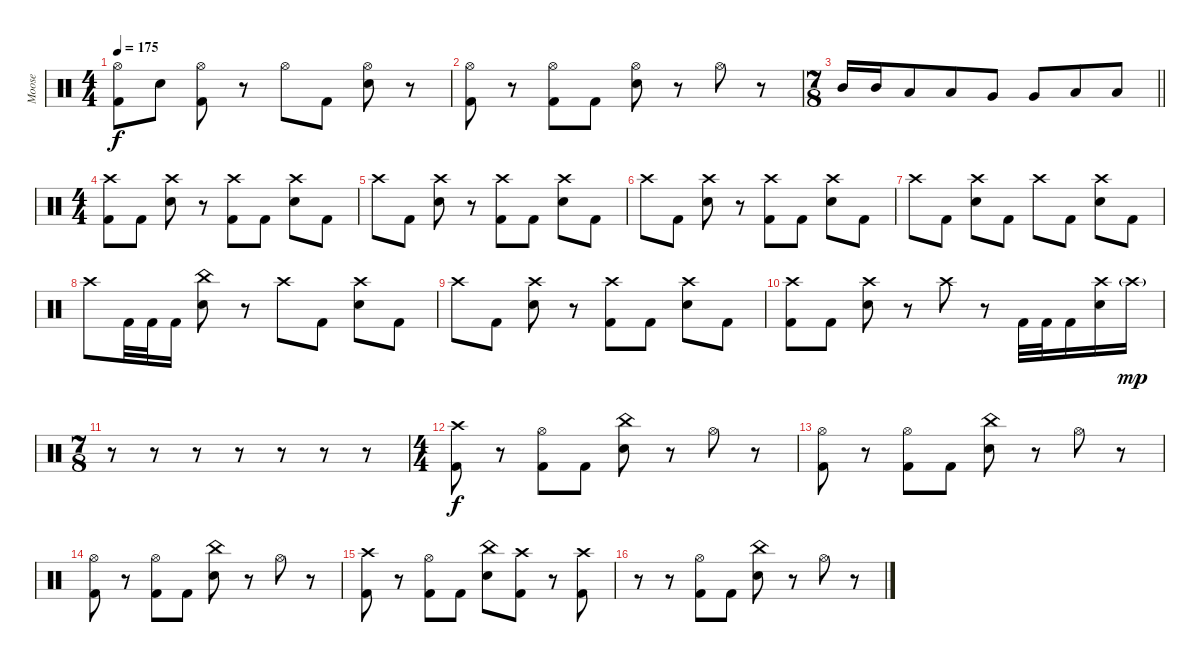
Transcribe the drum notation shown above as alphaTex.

\track ("Moose" "Moose") {instrument percussion}
\staff {score}
\articulation defaults
\ts (4 4)
\tempo 175
\clef neutral
\ks c
("Hi-Hat (open)" "Kick (hit) 2").8{dy f} "Electric Snare (hit)".8 ("Hi-Hat (open)" "Kick (hit) 2").8 r.8 "Hi-Hat (open)".8 "Kick (hit) 2".8 ("Hi-Hat (open)" "Electric Snare (hit)").8 r.8 |
("Hi-Hat (open)" "Kick (hit) 2").8 r.8 ("Hi-Hat (open)" "Kick (hit) 2").8 "Kick (hit) 2".8 ("Hi-Hat (open)" "Electric Snare (hit)").8 r.8 "Hi-Hat (open)".8 r.8 |
\ts (7 8)
\barLineRight lightlight "Mid Tom (hit)".16 "Mid Tom (hit)".16 "Low Tom (hit)".8 "Low Tom (hit)".8 "Very Low Tom (hit)".8 "Very Low Tom (hit)".8 "Low Floor Tom (hit)".8 "Low Floor Tom (hit)".8
|
\ts (4 4)
("Crash high (hit)" "Kick (hit) 2").8 "Kick (hit) 2".8 ("Crash high (hit)" "Electric Snare (hit)").8 r.8 ("Crash high (hit)" "Kick (hit) 2").8 "Kick (hit) 2".8 ("Crash high (hit)" "Electric Snare (hit)").8 "Kick (hit) 2".8 |
"Crash high (hit)".8 "Kick (hit) 2".8 ("Crash high (hit)" "Electric Snare (hit)").8 r.8 ("Crash high (hit)" "Kick (hit) 2").8 "Kick (hit) 2".8 ("Crash high (hit)" "Electric Snare (hit)").8 "Kick (hit) 2".8 |
"Crash high (hit)".8 "Kick (hit) 2".8 ("Crash high (hit)" "Electric Snare (hit)").8 r.8 ("Crash high (hit)" "Kick (hit) 2").8 "Kick (hit) 2".8 ("Crash high (hit)" "Electric Snare (hit)").8 "Kick (hit) 2".8 |
"Crash high (hit)".8 "Kick (hit) 2".8 ("Crash high (hit)" "Electric Snare (hit)").8 "Kick (hit) 2".8 "Crash high (hit)".8 "Kick (hit) 2".8 ("Crash high (hit)" "Electric Snare (hit)").8 "Kick (hit) 2".8 |
"Crash high (hit)".8 "Kick (hit) 2".32 "Kick (hit) 2".32 "Kick (hit) 2".16 ("China (hit)" "Electric Snare (hit)").8 r.8 "Crash high (hit)".8 "Kick (hit) 2".8 ("Crash high (hit)" "Electric Snare (hit)").8 "Kick (hit) 2".8 |
"Crash high (hit)".8 "Kick (hit) 2".8 ("Crash high (hit)" "Electric Snare (hit)").8 r.8 ("Crash high (hit)" "Kick (hit) 2").8 "Kick (hit) 2".8 ("Crash high (hit)" "Electric Snare (hit)").8 "Kick (hit) 2".8 |
("Crash high (hit)" "Kick (hit) 2").8 "Kick (hit) 2".8 ("Crash high (hit)" "Electric Snare (hit)").8 r.8 "Crash high (hit)".8 r.8 "Kick (hit) 2".32 "Kick (hit) 2".32 "Kick (hit) 2".16 ("Crash high (hit)" "Electric Snare (hit)").16 "Crash high (hit)"{g}.16{dy mp volume 0} |
\ts (7 8)
r.8 r.8 r.8 r.8 r.8 r.8{volume 16} r.8 |
\ts (4 4)
("Crash high (hit)" "Kick (hit) 2").8{dy f} r.8 ("Hi-Hat (open)" "Kick (hit) 2").8 "Kick (hit) 2".8 ("China (hit)" "Electric Snare (hit)").8 r.8 "Hi-Hat (open)".8 r.8 |
("Hi-Hat (open)" "Kick (hit) 2").8 r.8 ("Hi-Hat (open)" "Kick (hit) 2").8 "Kick (hit) 2".8 ("China (hit)" "Electric Snare (hit)").8 r.8 "Hi-Hat (open)".8 r.8 |
("Hi-Hat (open)" "Kick (hit) 2").8 r.8 ("Hi-Hat (open)" "Kick (hit) 2").8 "Kick (hit) 2".8 ("China (hit)" "Electric Snare (hit)").8 r.8 "Hi-Hat (open)".8 r.8 |
("Crash high (hit)" "Kick (hit) 2").8 r.8 ("Hi-Hat (open)" "Kick (hit) 2").8 "Kick (hit) 2".8 ("China (hit)" "Electric Snare (hit)").8 ("Crash high (hit)" "Kick (hit) 2").8 r.8 ("Crash high (hit)" "Kick (hit) 2").8 |
r.8 r.8 ("Hi-Hat (open)" "Kick (hit) 2").8 "Kick (hit) 2".8 ("China (hit)" "Electric Snare (hit)").8 r.8 "Hi-Hat (open)".8 r.8
